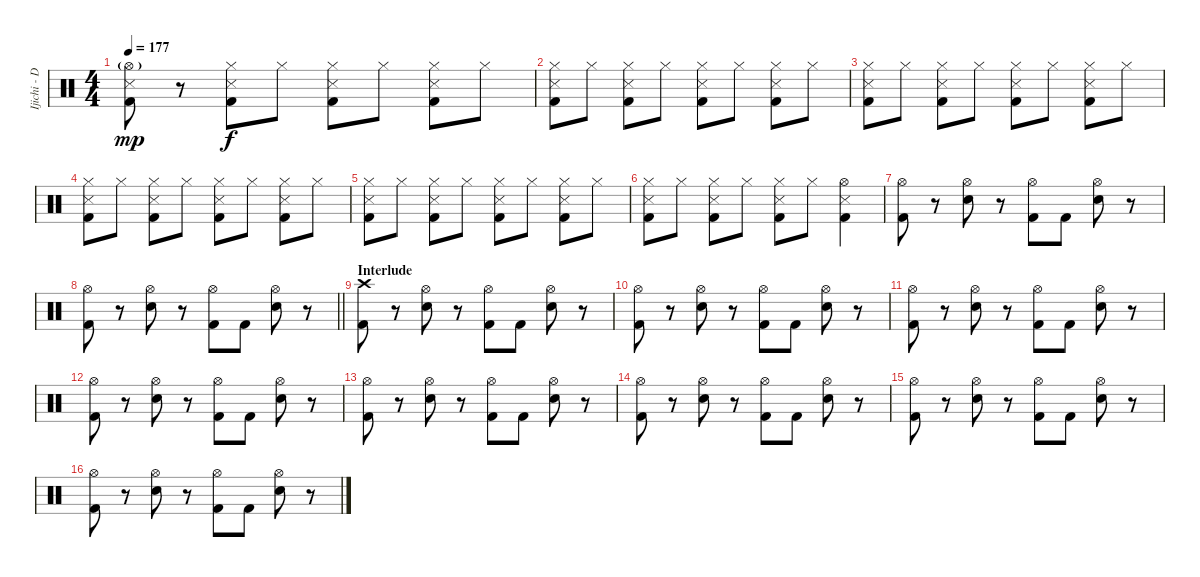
\track ("Ijichi - Drums" "Ijichi - D") {instrument percussion}
\staff {score}
\articulation defaults
\ts (4 4)
\tempo 177
\clef neutral
\ks c
("Hi-Hat (open)"{g} "Snare (side stick) 3" "Kick (hit) 2").8{dy mp} r.8 ("Hi-Hat (closed)" "Snare (side stick) 3" "Kick (hit) 2").8{dy f} "Hi-Hat (closed)".8 ("Hi-Hat (closed)" "Snare (side stick) 3" "Kick (hit) 2").8 "Hi-Hat (closed)".8 ("Hi-Hat (closed)" "Snare (side stick) 3" "Kick (hit) 2").8 "Hi-Hat (closed)".8 |
("Hi-Hat (closed)" "Snare (side stick) 3" "Kick (hit) 2").8 "Hi-Hat (closed)".8 ("Hi-Hat (closed)" "Snare (side stick) 3" "Kick (hit) 2").8 "Hi-Hat (closed)".8 ("Hi-Hat (closed)" "Snare (side stick) 3" "Kick (hit) 2").8 "Hi-Hat (closed)".8 ("Hi-Hat (closed)" "Snare (side stick) 3" "Kick (hit) 2").8 "Hi-Hat (closed)".8 |
("Hi-Hat (closed)" "Snare (side stick) 3" "Kick (hit) 2").8 "Hi-Hat (closed)".8 ("Hi-Hat (closed)" "Snare (side stick) 3" "Kick (hit) 2").8 "Hi-Hat (closed)".8 ("Hi-Hat (closed)" "Snare (side stick) 3" "Kick (hit) 2").8 "Hi-Hat (closed)".8 ("Hi-Hat (closed)" "Snare (side stick) 3" "Kick (hit) 2").8 "Hi-Hat (closed)".8 |
("Hi-Hat (closed)" "Snare (side stick) 3" "Kick (hit) 2").8 "Hi-Hat (closed)".8 ("Hi-Hat (closed)" "Snare (side stick) 3" "Kick (hit) 2").8 "Hi-Hat (closed)".8 ("Hi-Hat (closed)" "Snare (side stick) 3" "Kick (hit) 2").8 "Hi-Hat (closed)".8 ("Hi-Hat (closed)" "Snare (side stick) 3" "Kick (hit) 2").8 "Hi-Hat (closed)".8 |
("Hi-Hat (closed)" "Snare (side stick) 3" "Kick (hit) 2").8 "Hi-Hat (closed)".8 ("Hi-Hat (closed)" "Snare (side stick) 3" "Kick (hit) 2").8 "Hi-Hat (closed)".8 ("Hi-Hat (closed)" "Snare (side stick) 3" "Kick (hit) 2").8 "Hi-Hat (closed)".8 ("Hi-Hat (closed)" "Snare (side stick) 3" "Kick (hit) 2").8 "Hi-Hat (closed)".8 |
("Hi-Hat (closed)" "Snare (side stick) 3" "Kick (hit) 2").8 "Hi-Hat (closed)".8 ("Hi-Hat (closed)" "Snare (side stick) 3" "Kick (hit) 2").8 "Hi-Hat (closed)".8 ("Hi-Hat (closed)" "Snare (side stick) 3" "Kick (hit) 2").8 "Hi-Hat (closed)".8 ("Hi-Hat (open)" "Snare (side stick) 3" "Kick (hit) 2").4 |
("Hi-Hat (open)" "Kick (hit) 2").8 r.8 ("Hi-Hat (open)" "Snare (hit) 2").8 r.8 ("Hi-Hat (open)" "Kick (hit) 2").8 "Kick (hit) 2".8 ("Hi-Hat (open)" "Snare (hit) 2").8 r.8 |
\barLineRight lightlight
("Hi-Hat (open)" "Kick (hit) 2").8 r.8 ("Hi-Hat (open)" "Snare (hit) 2").8 r.8 ("Hi-Hat (open)" "Kick (hit) 2").8 "Kick (hit) 2".8 ("Hi-Hat (open)" "Snare (hit) 2").8 r.8 |
\section ("" "Interlude")
("Crash high (hit)" "Kick (hit) 2").8 r.8 ("Hi-Hat (open)" "Snare (hit) 2").8 r.8 ("Hi-Hat (open)" "Kick (hit) 2").8 "Kick (hit) 2".8 ("Hi-Hat (open)" "Snare (hit) 2").8 r.8 |
("Hi-Hat (open)" "Kick (hit) 2").8 r.8 ("Hi-Hat (open)" "Snare (hit) 2").8 r.8 ("Hi-Hat (open)" "Kick (hit) 2").8 "Kick (hit) 2".8 ("Hi-Hat (open)" "Snare (hit) 2").8 r.8 |
("Hi-Hat (open)" "Kick (hit) 2").8 r.8 ("Hi-Hat (open)" "Snare (hit) 2").8 r.8 ("Hi-Hat (open)" "Kick (hit) 2").8 "Kick (hit) 2".8 ("Hi-Hat (open)" "Snare (hit) 2").8 r.8 |
("Hi-Hat (open)" "Kick (hit) 2").8 r.8 ("Hi-Hat (open)" "Snare (hit) 2").8 r.8 ("Hi-Hat (open)" "Kick (hit) 2").8 "Kick (hit) 2".8 ("Hi-Hat (open)" "Snare (hit) 2").8 r.8 |
("Hi-Hat (open)" "Kick (hit) 2").8 r.8 ("Hi-Hat (open)" "Snare (hit) 2").8 r.8 ("Hi-Hat (open)" "Kick (hit) 2").8 "Kick (hit) 2".8 ("Hi-Hat (open)" "Snare (hit) 2").8 r.8 |
("Hi-Hat (open)" "Kick (hit) 2").8 r.8 ("Hi-Hat (open)" "Snare (hit) 2").8 r.8 ("Hi-Hat (open)" "Kick (hit) 2").8 "Kick (hit) 2".8 ("Hi-Hat (open)" "Snare (hit) 2").8 r.8 |
("Hi-Hat (open)" "Kick (hit) 2").8 r.8 ("Hi-Hat (open)" "Snare (hit) 2").8 r.8 ("Hi-Hat (open)" "Kick (hit) 2").8 "Kick (hit) 2".8 ("Hi-Hat (open)" "Snare (hit) 2").8 r.8 |
("Hi-Hat (open)" "Kick (hit) 2").8 r.8 ("Hi-Hat (open)" "Snare (hit) 2").8 r.8 ("Hi-Hat (open)" "Kick (hit) 2").8 "Kick (hit) 2".8 ("Hi-Hat (open)" "Snare (hit) 2").8 r.8
